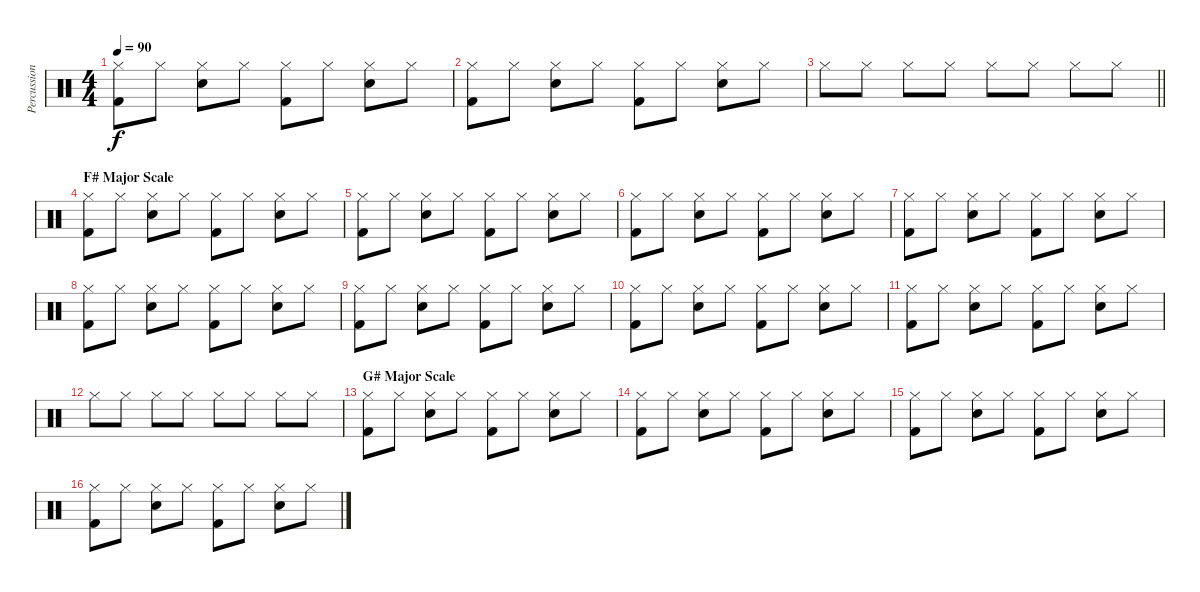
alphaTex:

\track ("Percussion" "Percussion") {instrument percussion}
\staff {score}
\articulation defaults
\ts (4 4)
\tempo 90
\clef neutral
\ks c
("Kick (hit) 2" "Hi-Hat (closed)").8{dy f} "Hi-Hat (closed)".8 ("Snare (hit) 2" "Hi-Hat (closed)").8 "Hi-Hat (closed)".8 ("Kick (hit) 2" "Hi-Hat (closed)").8 "Hi-Hat (closed)".8 ("Snare (hit) 2" "Hi-Hat (closed)").8 "Hi-Hat (closed)".8 |
("Kick (hit) 2" "Hi-Hat (closed)").8 "Hi-Hat (closed)".8 ("Snare (hit) 2" "Hi-Hat (closed)").8 "Hi-Hat (closed)".8 ("Kick (hit) 2" "Hi-Hat (closed)").8 "Hi-Hat (closed)".8 ("Snare (hit) 2" "Hi-Hat (closed)").8 "Hi-Hat (closed)".8 |
\barLineRight lightlight "Hi-Hat (closed)".8 "Hi-Hat (closed)".8 "Hi-Hat (closed)".8 "Hi-Hat (closed)".8 "Hi-Hat (closed)".8 "Hi-Hat (closed)".8 "Hi-Hat (closed)".8 "Hi-Hat (closed)".8
|
\section ("" "F# Major Scale")
("Kick (hit) 2" "Hi-Hat (closed)").8 "Hi-Hat (closed)".8 ("Snare (hit) 2" "Hi-Hat (closed)").8 "Hi-Hat (closed)".8 ("Kick (hit) 2" "Hi-Hat (closed)").8 "Hi-Hat (closed)".8 ("Snare (hit) 2" "Hi-Hat (closed)").8 "Hi-Hat (closed)".8 |
("Kick (hit) 2" "Hi-Hat (closed)").8 "Hi-Hat (closed)".8 ("Snare (hit) 2" "Hi-Hat (closed)").8 "Hi-Hat (closed)".8 ("Kick (hit) 2" "Hi-Hat (closed)").8 "Hi-Hat (closed)".8 ("Snare (hit) 2" "Hi-Hat (closed)").8 "Hi-Hat (closed)".8 |
("Kick (hit) 2" "Hi-Hat (closed)").8 "Hi-Hat (closed)".8 ("Snare (hit) 2" "Hi-Hat (closed)").8 "Hi-Hat (closed)".8 ("Kick (hit) 2" "Hi-Hat (closed)").8 "Hi-Hat (closed)".8 ("Snare (hit) 2" "Hi-Hat (closed)").8 "Hi-Hat (closed)".8 |
("Kick (hit) 2" "Hi-Hat (closed)").8 "Hi-Hat (closed)".8 ("Snare (hit) 2" "Hi-Hat (closed)").8 "Hi-Hat (closed)".8 ("Kick (hit) 2" "Hi-Hat (closed)").8 "Hi-Hat (closed)".8 ("Snare (hit) 2" "Hi-Hat (closed)").8 "Hi-Hat (closed)".8 |
("Kick (hit) 2" "Hi-Hat (closed)").8 "Hi-Hat (closed)".8 ("Snare (hit) 2" "Hi-Hat (closed)").8 "Hi-Hat (closed)".8 ("Kick (hit) 2" "Hi-Hat (closed)").8 "Hi-Hat (closed)".8 ("Snare (hit) 2" "Hi-Hat (closed)").8 "Hi-Hat (closed)".8 |
("Kick (hit) 2" "Hi-Hat (closed)").8 "Hi-Hat (closed)".8 ("Snare (hit) 2" "Hi-Hat (closed)").8 "Hi-Hat (closed)".8 ("Kick (hit) 2" "Hi-Hat (closed)").8 "Hi-Hat (closed)".8 ("Snare (hit) 2" "Hi-Hat (closed)").8 "Hi-Hat (closed)".8 |
("Kick (hit) 2" "Hi-Hat (closed)").8 "Hi-Hat (closed)".8 ("Snare (hit) 2" "Hi-Hat (closed)").8 "Hi-Hat (closed)".8 ("Kick (hit) 2" "Hi-Hat (closed)").8 "Hi-Hat (closed)".8 ("Snare (hit) 2" "Hi-Hat (closed)").8 "Hi-Hat (closed)".8 |
("Kick (hit) 2" "Hi-Hat (closed)").8 "Hi-Hat (closed)".8 ("Snare (hit) 2" "Hi-Hat (closed)").8 "Hi-Hat (closed)".8 ("Kick (hit) 2" "Hi-Hat (closed)").8 "Hi-Hat (closed)".8 ("Snare (hit) 2" "Hi-Hat (closed)").8 "Hi-Hat (closed)".8 |
"Hi-Hat (closed)".8 "Hi-Hat (closed)".8 "Hi-Hat (closed)".8 "Hi-Hat (closed)".8 "Hi-Hat (closed)".8 "Hi-Hat (closed)".8 "Hi-Hat (closed)".8 "Hi-Hat (closed)".8 |
\section ("" "G# Major Scale")
("Kick (hit) 2" "Hi-Hat (closed)").8 "Hi-Hat (closed)".8 ("Snare (hit) 2" "Hi-Hat (closed)").8 "Hi-Hat (closed)".8 ("Kick (hit) 2" "Hi-Hat (closed)").8 "Hi-Hat (closed)".8 ("Snare (hit) 2" "Hi-Hat (closed)").8 "Hi-Hat (closed)".8 |
("Kick (hit) 2" "Hi-Hat (closed)").8 "Hi-Hat (closed)".8 ("Snare (hit) 2" "Hi-Hat (closed)").8 "Hi-Hat (closed)".8 ("Kick (hit) 2" "Hi-Hat (closed)").8 "Hi-Hat (closed)".8 ("Snare (hit) 2" "Hi-Hat (closed)").8 "Hi-Hat (closed)".8 |
("Kick (hit) 2" "Hi-Hat (closed)").8 "Hi-Hat (closed)".8 ("Snare (hit) 2" "Hi-Hat (closed)").8 "Hi-Hat (closed)".8 ("Kick (hit) 2" "Hi-Hat (closed)").8 "Hi-Hat (closed)".8 ("Snare (hit) 2" "Hi-Hat (closed)").8 "Hi-Hat (closed)".8 |
("Kick (hit) 2" "Hi-Hat (closed)").8 "Hi-Hat (closed)".8 ("Snare (hit) 2" "Hi-Hat (closed)").8 "Hi-Hat (closed)".8 ("Kick (hit) 2" "Hi-Hat (closed)").8 "Hi-Hat (closed)".8 ("Snare (hit) 2" "Hi-Hat (closed)").8 "Hi-Hat (closed)".8
